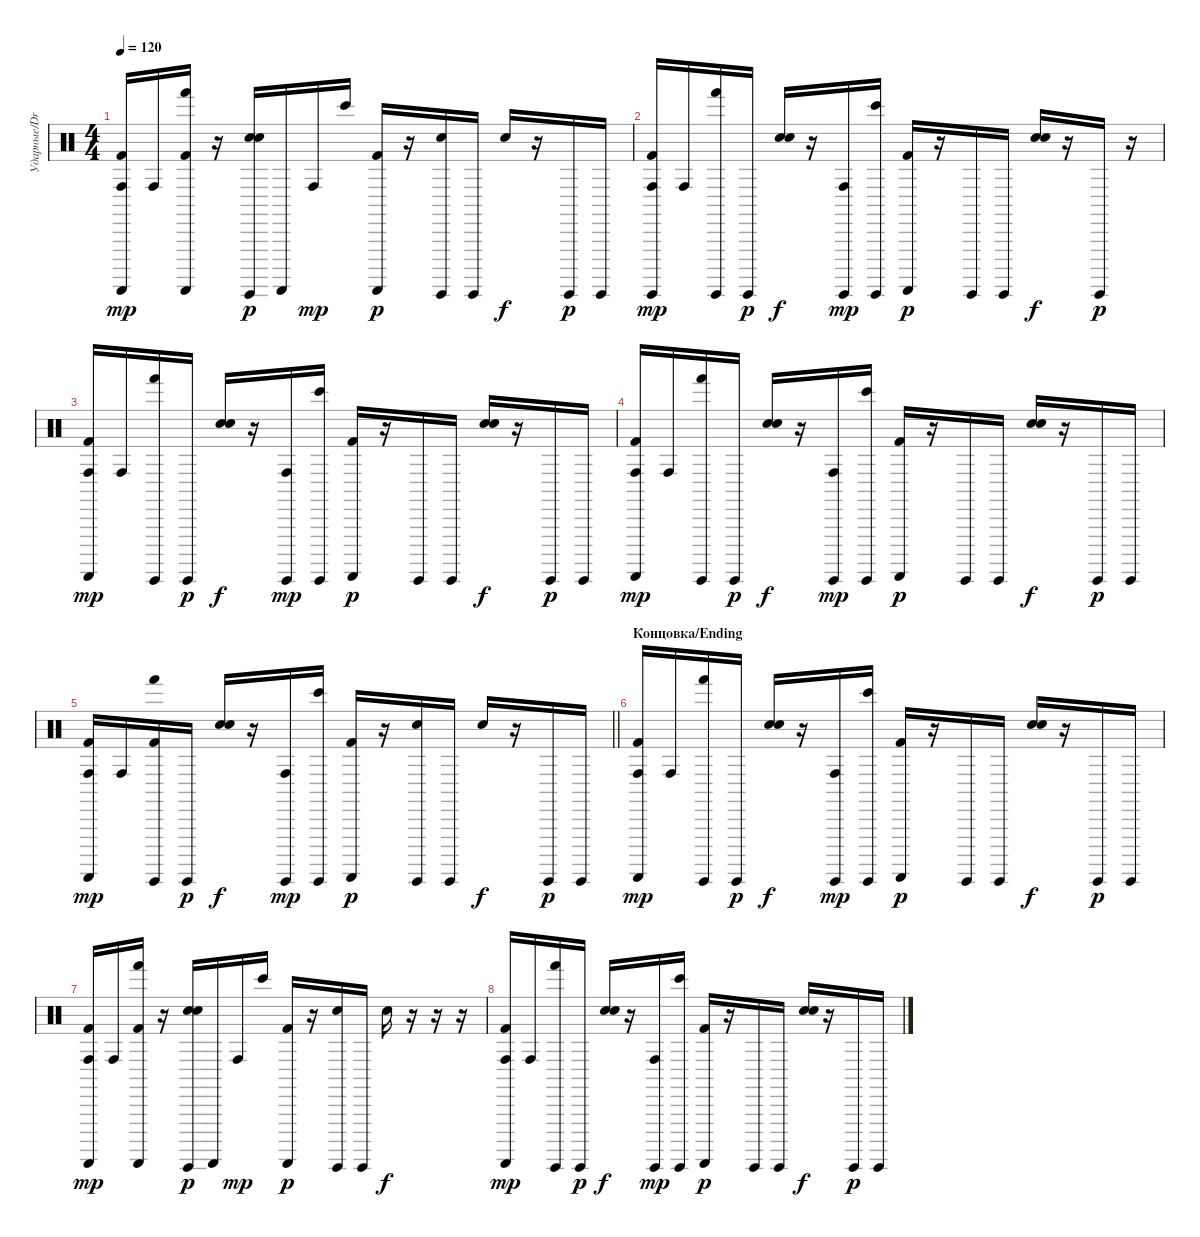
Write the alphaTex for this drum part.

\track ("Ударные/Drums" "Ударные/Dr") {instrument percussion}
\staff {score}
\articulation defaults
\ts (4 4)
\tempo 120
\clef neutral
\ks c
("Guiro (scrap-return)" "Conga high (hit)" "Kick (hit) 2").16{dy mp} "Conga high (hit)".16 ("Guiro (scrap-return)" "Hand (hit)" "Kick (hit) 2").16 r.16 ("Guiro (hit)" "Hand Clap (hit)" "Snare (hit) 2").16{dy p} "Guiro (scrap-return)".16 "Conga high (hit)".16{dy mp} "Bongo High (hit)".16 ("Guiro (scrap-return)" "Kick (hit) 2").16{dy p} r.16 ("Guiro (hit)" "Snare (hit) 2").16 "Guiro (hit)".16 "Snare (hit) 2".16{dy f} r.16 "Guiro (hit)".16{dy p} "Guiro (hit)".16 |
("Guiro (hit)" "Conga high (hit)" "Kick (hit) 2").16{dy mp} "Conga high (hit)".16 ("Guiro (hit)" "Hand (hit)").16 "Guiro (hit)".16{dy p} ("Hand Clap (hit)" "Snare (hit) 2").16{dy f} r.16 ("Guiro (hit)" "Conga high (hit)").16{dy mp} ("Guiro (hit)" "Bongo High (hit)").16 ("Guiro (scrap-return)" "Kick (hit) 2").16{dy p} r.16 "Guiro (hit)".16 "Guiro (hit)".16 ("Hand Clap (hit)" "Snare (hit) 2").16{dy f} r.16 "Guiro (hit)".16{dy p} r.16 |
("Guiro (scrap-return)" "Conga high (hit)" "Kick (hit) 2").16{dy mp} "Conga high (hit)".16 ("Guiro (hit)" "Hand (hit)").16 "Guiro (hit)".16{dy p} ("Hand Clap (hit)" "Snare (hit) 2").16{dy f} r.16 ("Guiro (hit)" "Conga high (hit)").16{dy mp} ("Guiro (hit)" "Bongo High (hit)").16 ("Guiro (scrap-return)" "Kick (hit) 2").16{dy p} r.16 "Guiro (hit)".16 "Guiro (hit)".16 ("Hand Clap (hit)" "Snare (hit) 2").16{dy f} r.16 "Guiro (hit)".16{dy p} "Guiro (hit)".16 |
("Guiro (scrap-return)" "Conga high (hit)" "Kick (hit) 2").16{dy mp} "Conga high (hit)".16 ("Guiro (hit)" "Hand (hit)").16 "Guiro (hit)".16{dy p} ("Hand Clap (hit)" "Snare (hit) 2").16{dy f} r.16 ("Guiro (hit)" "Conga high (hit)").16{dy mp} ("Guiro (hit)" "Bongo High (hit)").16 ("Guiro (scrap-return)" "Kick (hit) 2").16{dy p} r.16 "Guiro (hit)".16 "Guiro (hit)".16 ("Hand Clap (hit)" "Snare (hit) 2").16{dy f} r.16 "Guiro (hit)".16{dy p} "Guiro (hit)".16 |
\barLineRight lightlight
("Guiro (scrap-return)" "Conga high (hit)" "Kick (hit) 2").16{dy mp} "Conga high (hit)".16 ("Guiro (hit)" "Hand (hit)" "Kick (hit) 2").16 "Guiro (hit)".16{dy p} ("Hand Clap (hit)" "Snare (hit) 2").16{dy f} r.16 ("Guiro (hit)" "Conga high (hit)").16{dy mp} ("Guiro (hit)" "Bongo High (hit)").16 ("Guiro (scrap-return)" "Kick (hit) 2").16{dy p} r.16 ("Guiro (hit)" "Snare (hit) 2").16 "Guiro (hit)".16 "Snare (hit) 2".16{dy f} r.16 "Guiro (hit)".16{dy p} "Guiro (hit)".16 |
\section ("" "Концовка/Ending")
("Guiro (scrap-return)" "Conga high (hit)" "Kick (hit) 2").16{dy mp} "Conga high (hit)".16 ("Guiro (hit)" "Hand (hit)").16 "Guiro (hit)".16{dy p} ("Hand Clap (hit)" "Snare (hit) 2").16{dy f} r.16 ("Guiro (hit)" "Conga high (hit)").16{dy mp} ("Guiro (hit)" "Bongo High (hit)").16 ("Guiro (scrap-return)" "Kick (hit) 2").16{dy p} r.16 "Guiro (hit)".16 "Guiro (hit)".16 ("Hand Clap (hit)" "Snare (hit) 2").16{dy f} r.16 "Guiro (hit)".16{dy p} "Guiro (hit)".16 |
("Guiro (scrap-return)" "Conga high (hit)" "Kick (hit) 2").16{dy mp} "Conga high (hit)".16 ("Guiro (scrap-return)" "Hand (hit)" "Kick (hit) 2").16 r.16 ("Guiro (hit)" "Hand Clap (hit)" "Snare (hit) 2").16{dy p} "Guiro (scrap-return)".16 "Conga high (hit)".16{dy mp} "Bongo High (hit)".16 ("Guiro (scrap-return)" "Kick (hit) 2").16{dy p} r.16 ("Guiro (hit)" "Snare (hit) 2").16 "Guiro (hit)".16 "Snare (hit) 2".16{dy f} r.16 r.16 r.16 |
("Guiro (scrap-return)" "Conga high (hit)" "Kick (hit) 2").16{dy mp} "Conga high (hit)".16 ("Guiro (hit)" "Hand (hit)").16 "Guiro (hit)".16{dy p} ("Hand Clap (hit)" "Snare (hit) 2").16{dy f} r.16 ("Guiro (hit)" "Conga high (hit)").16{dy mp} ("Guiro (hit)" "Bongo High (hit)").16 ("Guiro (scrap-return)" "Kick (hit) 2").16{dy p} r.16 "Guiro (hit)".16 "Guiro (hit)".16 ("Hand Clap (hit)" "Snare (hit) 2").16{dy f} r.16 "Guiro (hit)".16{dy p} "Guiro (hit)".16
